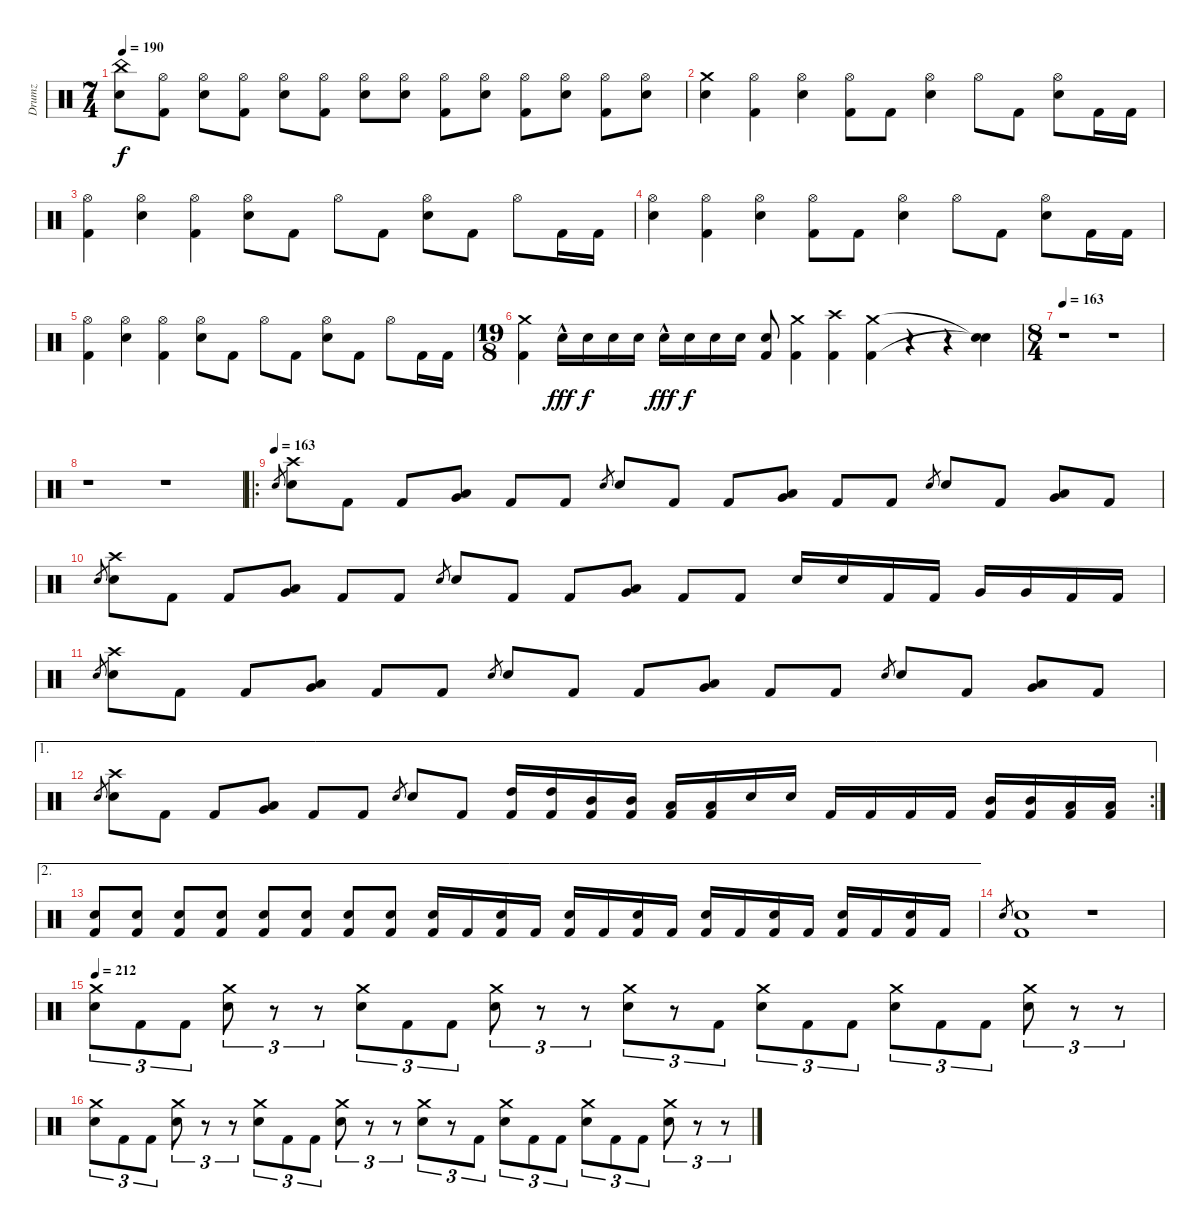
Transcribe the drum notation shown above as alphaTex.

\track ("Drumz" "Drumz") {instrument percussion}
\staff {score}
\articulation defaults
\ts (7 4)
\tempo 190
\clef neutral
\ks c
("China (hit)" "Electric Snare (hit)").8{dy f} ("Hi-Hat (open)" "Kick (hit) 2").8 ("Hi-Hat (open)" "Electric Snare (hit)").8 ("Hi-Hat (open)" "Kick (hit) 2").8 ("Hi-Hat (open)" "Electric Snare (hit)").8 ("Hi-Hat (open)" "Kick (hit) 2").8 ("Hi-Hat (open)" "Electric Snare (hit)").8 ("Hi-Hat (open)" "Electric Snare (hit)").8 ("Hi-Hat (open)" "Kick (hit) 2").8 ("Hi-Hat (open)" "Electric Snare (hit)").8 ("Hi-Hat (open)" "Kick (hit) 2").8 ("Hi-Hat (open)" "Electric Snare (hit)").8 ("Hi-Hat (open)" "Kick (hit) 2").8 ("Hi-Hat (open)" "Electric Snare (hit)").8 |
("Crash medium (hit)" "Electric Snare (hit)").4 ("Hi-Hat (open)" "Kick (hit) 2").4 ("Hi-Hat (open)" "Electric Snare (hit)").4 ("Hi-Hat (open)" "Kick (hit) 2").8 "Kick (hit) 2".8 ("Hi-Hat (open)" "Electric Snare (hit)").4 "Hi-Hat (open)".8 "Kick (hit) 2".8 ("Hi-Hat (open)" "Electric Snare (hit)").8 "Kick (hit) 2".16 "Kick (hit) 2".16 |
("Hi-Hat (open)" "Kick (hit) 2").4 ("Hi-Hat (open)" "Electric Snare (hit)").4 ("Hi-Hat (open)" "Kick (hit) 2").4 ("Hi-Hat (open)" "Electric Snare (hit)").8 "Kick (hit) 2".8 "Hi-Hat (open)".8 "Kick (hit) 2".8 ("Hi-Hat (open)" "Electric Snare (hit)").8 "Kick (hit) 2".8 "Hi-Hat (open)".8 "Kick (hit) 2".16 "Kick (hit) 2".16 |
("Hi-Hat (open)" "Electric Snare (hit)").4 ("Hi-Hat (open)" "Kick (hit) 2").4 ("Hi-Hat (open)" "Electric Snare (hit)").4 ("Hi-Hat (open)" "Kick (hit) 2").8 "Kick (hit) 2".8 ("Hi-Hat (open)" "Electric Snare (hit)").4 "Hi-Hat (open)".8 "Kick (hit) 2".8 ("Hi-Hat (open)" "Electric Snare (hit)").8 "Kick (hit) 2".16 "Kick (hit) 2".16 |
("Hi-Hat (open)" "Kick (hit) 2").4 ("Hi-Hat (open)" "Electric Snare (hit)").4 ("Hi-Hat (open)" "Kick (hit) 2").4 ("Hi-Hat (open)" "Electric Snare (hit)").8 "Kick (hit) 2".8 "Hi-Hat (open)".8 "Kick (hit) 2".8 ("Hi-Hat (open)" "Electric Snare (hit)").8 "Kick (hit) 2".8 "Hi-Hat (open)".8 "Kick (hit) 2".16 "Kick (hit) 2".16 |
\ts (19 8)
("Crash medium (hit)" "Kick (hit) 2").4 "Electric Snare (hit)"{hac}.16{dy fff} "Electric Snare (hit)".16{dy f} "Electric Snare (hit)".16 "Electric Snare (hit)".16 "Electric Snare (hit)"{hac}.16{dy fff} "Electric Snare (hit)".16{dy f} "Electric Snare (hit)".16 "Electric Snare (hit)".16 ("Electric Snare (hit)" "Kick (hit) 2").8 ("Crash medium (hit)" "Kick (hit) 2").4 ("Crash high (hit)" "Kick (hit) 2").4 ("Crash medium (hit)" "Kick (hit) 2").4 r.4 r.4 ("Snare (hit)"{t} "Snare (hit)"{t}).4 |
\ts (8 4)
\tempo 163
r.1 r.1 |
r.1 r.1 |
\ro
\tempo (163)
"Electric Snare (hit)".8{gr} ("Crash high (hit)" "Electric Snare (hit)").8 "Kick (hit) 2".8 "Kick (hit) 2".8 ("Low Tom (hit)" "Very Low Tom (hit)").8 "Kick (hit) 2".8 "Kick (hit) 2".8 "Electric Snare (hit)".8{gr} "Electric Snare (hit)".8 "Kick (hit) 2".8 "Kick (hit) 2".8 ("Low Tom (hit)" "Very Low Tom (hit)").8 "Kick (hit) 2".8 "Kick (hit) 2".8 "Electric Snare (hit)".8{gr} "Electric Snare (hit)".8 "Kick (hit) 2".8 ("Low Tom (hit)" "Very Low Tom (hit)").8 "Kick (hit) 2".8 |
"Electric Snare (hit)".8{gr} ("Crash high (hit)" "Electric Snare (hit)").8 "Kick (hit) 2".8 "Kick (hit) 2".8 ("Low Tom (hit)" "Very Low Tom (hit)").8 "Kick (hit) 2".8 "Kick (hit) 2".8 "Electric Snare (hit)".8{gr} "Electric Snare (hit)".8 "Kick (hit) 2".8 "Kick (hit) 2".8 ("Low Tom (hit)" "Very Low Tom (hit)").8 "Kick (hit) 2".8 "Kick (hit) 2".8 "Electric Snare (hit)".16 "Electric Snare (hit)".16 "Kick (hit) 2".16 "Kick (hit) 2".16 "Very Low Tom (hit)".16 "Very Low Tom (hit)".16 "Kick (hit) 2".16 "Kick (hit) 2".16 |
"Electric Snare (hit)".8{gr} ("Crash high (hit)" "Electric Snare (hit)").8 "Kick (hit) 2".8 "Kick (hit) 2".8 ("Low Tom (hit)" "Very Low Tom (hit)").8 "Kick (hit) 2".8 "Kick (hit) 2".8 "Electric Snare (hit)".8{gr} "Electric Snare (hit)".8 "Kick (hit) 2".8 "Kick (hit) 2".8 ("Low Tom (hit)" "Very Low Tom (hit)").8 "Kick (hit) 2".8 "Kick (hit) 2".8 "Electric Snare (hit)".8{gr} "Electric Snare (hit)".8 "Kick (hit) 2".8 ("Low Tom (hit)" "Very Low Tom (hit)").8 "Kick (hit) 2".8 |
\ae 1
\rc 2 "Electric Snare (hit)".8{gr}
("Crash high (hit)" "Electric Snare (hit)").8 "Kick (hit) 2".8 "Kick (hit) 2".8 ("Low Tom (hit)" "Very Low Tom (hit)").8 "Kick (hit) 2".8 "Kick (hit) 2".8 "Electric Snare (hit)".8{gr} "Electric Snare (hit)".8 "Kick (hit) 2".8 ("High Tom (hit)" "Kick (hit) 2").16 ("High Tom (hit)" "Kick (hit) 2").16 ("Mid Tom (hit)" "Kick (hit) 2").16 ("Mid Tom (hit)" "Kick (hit) 2").16 ("Low Tom (hit)" "Kick (hit) 2").16 ("Low Tom (hit)" "Kick (hit) 2").16 "Electric Snare (hit)".16 "Electric Snare (hit)".16 "Kick (hit) 2".16 "Kick (hit) 2".16 "Kick (hit) 2".16 "Kick (hit) 2".16 ("Mid Tom (hit)" "Kick (hit) 2").16 ("Mid Tom (hit)" "Kick (hit) 2").16 ("Low Tom (hit)" "Kick (hit) 2").16 ("Low Tom (hit)" "Kick (hit) 2").16 |
\ae 2
("Electric Snare (hit)" "Kick (hit) 2").8{volume 2} ("Electric Snare (hit)" "Kick (hit) 2").8{volume 10} ("Electric Snare (hit)" "Kick (hit) 2").8 ("Electric Snare (hit)" "Kick (hit) 2").8 ("Electric Snare (hit)" "Kick (hit) 2").8 ("Electric Snare (hit)" "Kick (hit) 2").8 ("Electric Snare (hit)" "Kick (hit) 2").8 ("Electric Snare (hit)" "Kick (hit) 2").8 ("Electric Snare (hit)" "Kick (hit) 2").16 "Kick (hit) 2".16 ("Electric Snare (hit)" "Kick (hit) 2").16 "Kick (hit) 2".16 ("Electric Snare (hit)" "Kick (hit) 2").16 "Kick (hit) 2".16 ("Electric Snare (hit)" "Kick (hit) 2").16 "Kick (hit) 2".16 ("Electric Snare (hit)" "Kick (hit) 2").16 "Kick (hit) 2".16 ("Electric Snare (hit)" "Kick (hit) 2").16 "Kick (hit) 2".16 ("Electric Snare (hit)" "Kick (hit) 2").16 "Kick (hit) 2".16 ("Electric Snare (hit)" "Kick (hit) 2").16 "Kick (hit) 2".16 |
"Electric Snare (hit)".8{gr} ("Electric Snare (hit)" "Kick (hit) 2").1 r.1 |
\tempo 212
("Crash medium (hit)" "Electric Snare (hit)").8{tu (3 2)} "Kick (hit) 2".8{tu (3 2)} "Kick (hit) 2".8{tu (3 2)} ("Crash medium (hit)" "Electric Snare (hit)").8{tu (3 2)} r.8{tu (3 2)} r.8{tu (3 2)} ("Crash medium (hit)" "Electric Snare (hit)").8{tu (3 2)} "Kick (hit) 2".8{tu (3 2)} "Kick (hit) 2".8{tu (3 2)} ("Crash medium (hit)" "Electric Snare (hit)").8{tu (3 2)} r.8{tu (3 2)} r.8{tu (3 2)} ("Crash medium (hit)" "Electric Snare (hit)").8{tu (3 2)} r.8{tu (3 2)} "Kick (hit) 2".8{tu (3 2)} ("Crash medium (hit)" "Electric Snare (hit)").8{tu (3 2)} "Kick (hit) 2".8{tu (3 2)} "Kick (hit) 2".8{tu (3 2)} ("Crash medium (hit)" "Electric Snare (hit)").8{tu (3 2)} "Kick (hit) 2".8{tu (3 2)} "Kick (hit) 2".8{tu (3 2)} ("Crash medium (hit)" "Electric Snare (hit)").8{tu (3 2)} r.8{tu (3 2)} r.8{tu (3 2)} |
("Crash medium (hit)" "Electric Snare (hit)").8{tu (3 2)} "Kick (hit) 2".8{tu (3 2)} "Kick (hit) 2".8{tu (3 2)} ("Crash medium (hit)" "Electric Snare (hit)").8{tu (3 2)} r.8{tu (3 2)} r.8{tu (3 2)} ("Crash medium (hit)" "Electric Snare (hit)").8{tu (3 2)} "Kick (hit) 2".8{tu (3 2)} "Kick (hit) 2".8{tu (3 2)} ("Crash medium (hit)" "Electric Snare (hit)").8{tu (3 2)} r.8{tu (3 2)} r.8{tu (3 2)} ("Crash medium (hit)" "Electric Snare (hit)").8{tu (3 2)} r.8{tu (3 2)} "Kick (hit) 2".8{tu (3 2)} ("Crash medium (hit)" "Electric Snare (hit)").8{tu (3 2)} "Kick (hit) 2".8{tu (3 2)} "Kick (hit) 2".8{tu (3 2)} ("Crash medium (hit)" "Electric Snare (hit)").8{tu (3 2)} "Kick (hit) 2".8{tu (3 2)} "Kick (hit) 2".8{tu (3 2)} ("Crash medium (hit)" "Electric Snare (hit)").8{tu (3 2)} r.8{tu (3 2)} r.8{tu (3 2)}
